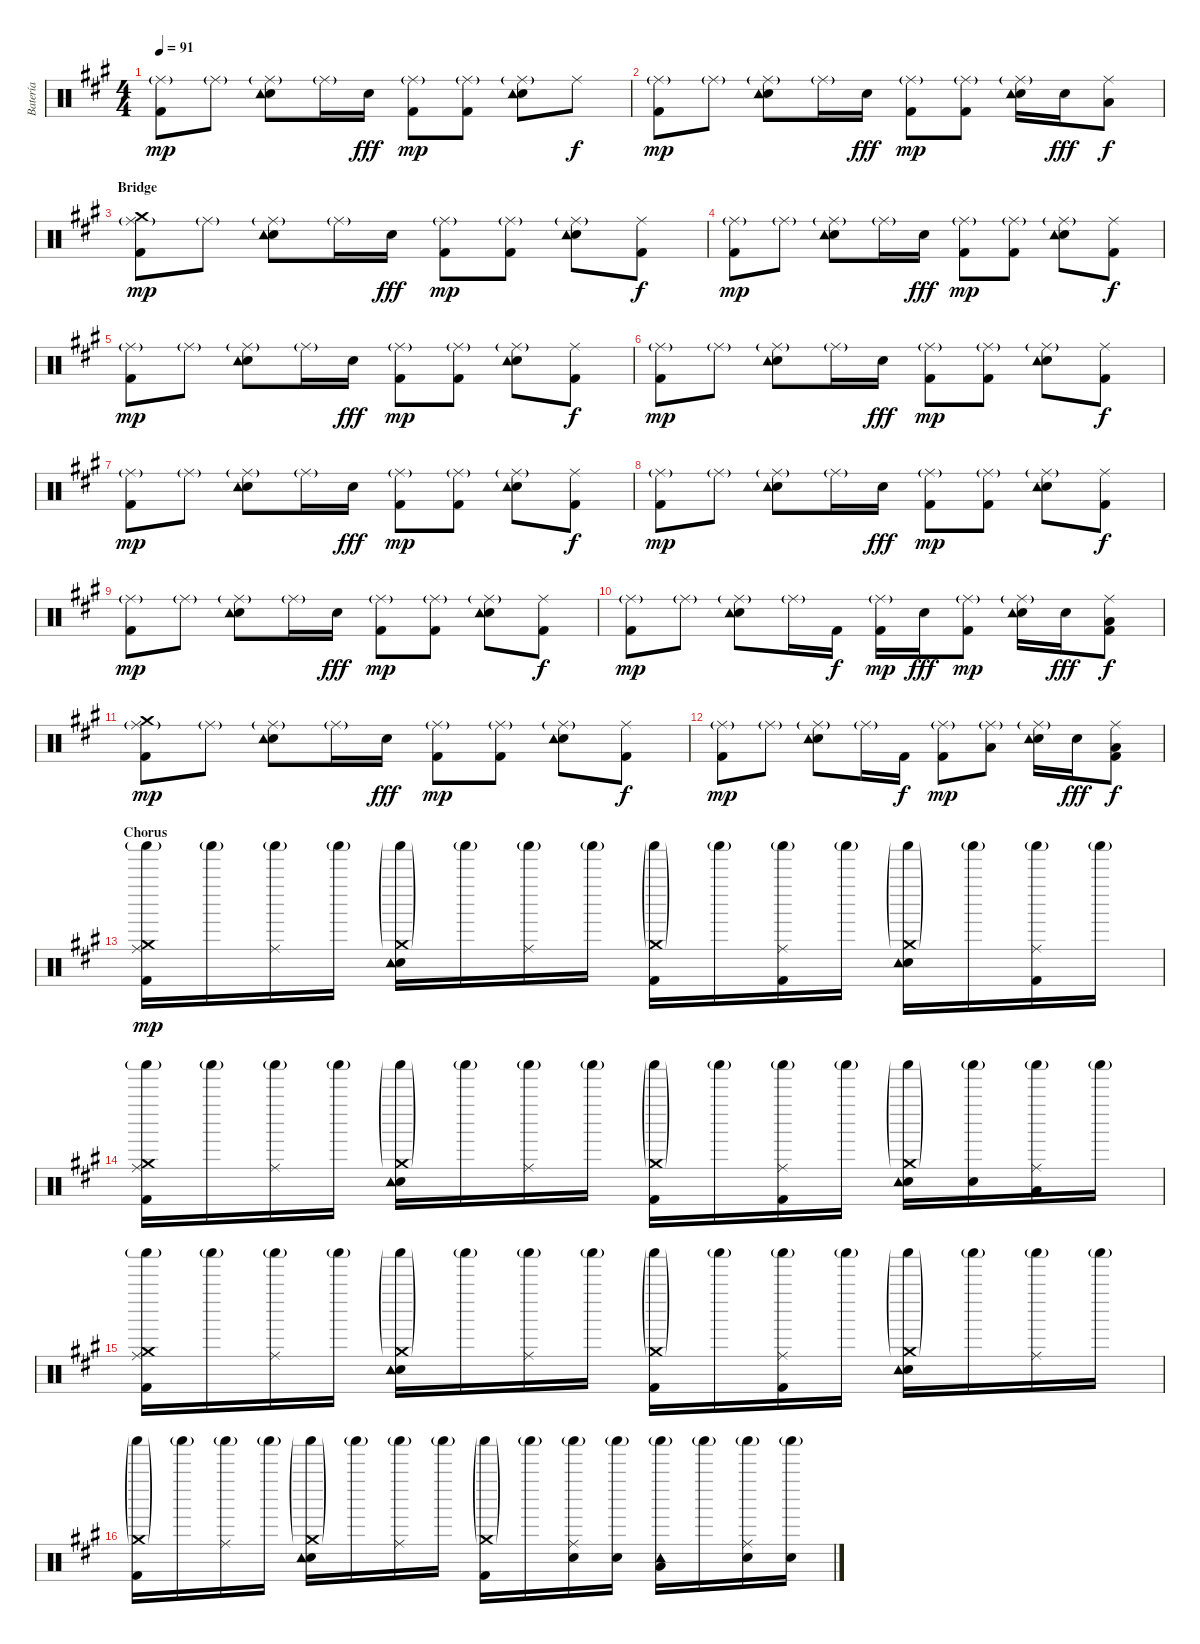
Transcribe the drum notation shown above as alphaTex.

\track ("Batería" "Batería") {instrument percussion}
\staff {score}
\articulation defaults
\ts (4 4)
\tempo 91
\clef neutral
\ks a
("Kick (hit) 2" "Ride (middle)"{g}).8{dy mp} "Ride (middle)"{g}.8 ("Electric Snare (hit)" "Ride (middle)"{g} "Tambourine (hit)").8 "Ride (middle)"{g}.16 "Electric Snare (hit)".16{dy fff} ("Kick (hit) 2" "Ride (middle)"{g}).8{dy mp} ("Kick (hit) 2" "Ride (middle)"{g}).8 ("Electric Snare (hit)" "Ride (middle)"{g} "Tambourine (hit)").8 "Ride (middle)".8{dy f} |
("Kick (hit) 2" "Ride (middle)"{g}).8{dy mp} "Ride (middle)"{g}.8 ("Electric Snare (hit)" "Ride (middle)"{g} "Tambourine (hit)").8 "Ride (middle)"{g}.16 "Electric Snare (hit)".16{dy fff} ("Kick (hit) 2" "Ride (middle)"{g}).8{dy mp} ("Kick (hit) 2" "Ride (middle)"{g}).8 ("Electric Snare (hit)" "Ride (middle)"{g} "Tambourine (hit)").16 "Electric Snare (hit)".16{dy fff} ("Ride (middle)" "Low Tom (hit)").8{dy f} |
\section ("" "Bridge")
("Kick (hit) 2" "Ride (middle)"{g} "Crash medium (hit)").8{dy mp} "Ride (middle)"{g}.8 ("Electric Snare (hit)" "Ride (middle)"{g} "Tambourine (hit)").8 "Ride (middle)"{g}.16 "Electric Snare (hit)".16{dy fff} ("Kick (hit) 2" "Ride (middle)"{g}).8{dy mp} ("Kick (hit) 2" "Ride (middle)"{g}).8 ("Electric Snare (hit)" "Ride (middle)"{g} "Tambourine (hit)").8 ("Kick (hit) 2" "Ride (middle)").8{dy f} |
("Kick (hit) 2" "Ride (middle)"{g}).8{dy mp} "Ride (middle)"{g}.8 ("Electric Snare (hit)" "Ride (middle)"{g} "Tambourine (hit)").8 "Ride (middle)"{g}.16 "Electric Snare (hit)".16{dy fff} ("Kick (hit) 2" "Ride (middle)"{g}).8{dy mp} ("Kick (hit) 2" "Ride (middle)"{g}).8 ("Electric Snare (hit)" "Ride (middle)"{g} "Tambourine (hit)").8 ("Kick (hit) 2" "Ride (middle)").8{dy f} |
("Kick (hit) 2" "Ride (middle)"{g}).8{dy mp} "Ride (middle)"{g}.8 ("Electric Snare (hit)" "Ride (middle)"{g} "Tambourine (hit)").8 "Ride (middle)"{g}.16 "Electric Snare (hit)".16{dy fff} ("Kick (hit) 2" "Ride (middle)"{g}).8{dy mp} ("Kick (hit) 2" "Ride (middle)"{g}).8 ("Electric Snare (hit)" "Ride (middle)"{g} "Tambourine (hit)").8 ("Kick (hit) 2" "Ride (middle)").8{dy f} |
("Kick (hit) 2" "Ride (middle)"{g}).8{dy mp} "Ride (middle)"{g}.8 ("Electric Snare (hit)" "Ride (middle)"{g} "Tambourine (hit)").8 "Ride (middle)"{g}.16 "Electric Snare (hit)".16{dy fff} ("Kick (hit) 2" "Ride (middle)"{g}).8{dy mp} ("Kick (hit) 2" "Ride (middle)"{g}).8 ("Electric Snare (hit)" "Ride (middle)"{g} "Tambourine (hit)").8 ("Kick (hit) 2" "Ride (middle)").8{dy f} |
("Kick (hit) 2" "Ride (middle)"{g}).8{dy mp} "Ride (middle)"{g}.8 ("Electric Snare (hit)" "Ride (middle)"{g} "Tambourine (hit)").8 "Ride (middle)"{g}.16 "Electric Snare (hit)".16{dy fff} ("Kick (hit) 2" "Ride (middle)"{g}).8{dy mp} ("Kick (hit) 2" "Ride (middle)"{g}).8 ("Electric Snare (hit)" "Ride (middle)"{g} "Tambourine (hit)").8 ("Kick (hit) 2" "Ride (middle)").8{dy f} |
("Kick (hit) 2" "Ride (middle)"{g}).8{dy mp} "Ride (middle)"{g}.8 ("Electric Snare (hit)" "Ride (middle)"{g} "Tambourine (hit)").8 "Ride (middle)"{g}.16 "Electric Snare (hit)".16{dy fff} ("Kick (hit) 2" "Ride (middle)"{g}).8{dy mp} ("Kick (hit) 2" "Ride (middle)"{g}).8 ("Electric Snare (hit)" "Ride (middle)"{g} "Tambourine (hit)").8 ("Kick (hit) 2" "Ride (middle)").8{dy f} |
("Kick (hit) 2" "Ride (middle)"{g}).8{dy mp} "Ride (middle)"{g}.8 ("Electric Snare (hit)" "Ride (middle)"{g} "Tambourine (hit)").8 "Ride (middle)"{g}.16 "Electric Snare (hit)".16{dy fff} ("Kick (hit) 2" "Ride (middle)"{g}).8{dy mp} ("Kick (hit) 2" "Ride (middle)"{g}).8 ("Electric Snare (hit)" "Ride (middle)"{g} "Tambourine (hit)").8 ("Kick (hit) 2" "Ride (middle)").8{dy f} |
("Kick (hit) 2" "Ride (middle)"{g}).8{dy mp} "Ride (middle)"{g}.8 ("Electric Snare (hit)" "Ride (middle)"{g} "Tambourine (hit)").8 "Ride (middle)"{g}.16 "Kick (hit) 2".16{dy f} ("Kick (hit) 2" "Ride (middle)"{g}).16{dy mp} "Electric Snare (hit)".16{dy fff} ("Kick (hit) 2" "Ride (middle)"{g}).8{dy mp} ("Electric Snare (hit)" "Ride (middle)"{g} "Tambourine (hit)").16 "Electric Snare (hit)".16{dy fff} ("Kick (hit) 2" "Ride (middle)" "Low Tom (hit)").8{dy f} |
("Kick (hit) 2" "Ride (middle)"{g} "Crash medium (hit)").8{dy mp} "Ride (middle)"{g}.8 ("Electric Snare (hit)" "Ride (middle)"{g} "Tambourine (hit)").8 "Ride (middle)"{g}.16 "Electric Snare (hit)".16{dy fff} ("Kick (hit) 2" "Ride (middle)"{g}).8{dy mp} ("Kick (hit) 2" "Ride (middle)"{g}).8 ("Electric Snare (hit)" "Ride (middle)"{g} "Tambourine (hit)").8 ("Kick (hit) 2" "Ride (middle)").8{dy f} |
("Kick (hit) 2" "Ride (middle)"{g}).8{dy mp} "Ride (middle)"{g}.8 ("Electric Snare (hit)" "Ride (middle)"{g} "Tambourine (hit)").8 "Ride (middle)"{g}.16 "Kick (hit) 2".16{dy f} ("Kick (hit) 2" "Ride (middle)"{g}).8{dy mp} ("Ride (middle)"{g} "Low Tom (hit)").8 ("Electric Snare (hit)" "Ride (middle)"{g} "Tambourine (hit)").16 "Electric Snare (hit)".16{dy fff} ("Kick (hit) 2" "Ride (middle)" "Low Tom (hit)").8{dy f} |
\section ("" "Chorus")
("Kick (hit) 2" "Ride (middle)" "Crash medium (hit)" "Shaker (hit)"{g}).16{dy mp} "Shaker (hit)"{g}.16 ("Ride (middle)" "Shaker (hit)"{g}).16 "Shaker (hit)"{g}.16 ("Electric Snare (hit)" "Crash medium (hit)"{g} "Tambourine (hit)" "Shaker (hit)"{g}).16 "Shaker (hit)"{g}.16 ("Ride (middle)" "Shaker (hit)"{g}).16 "Shaker (hit)"{g}.16 ("Kick (hit) 2" "Crash medium (hit)"{g} "Shaker (hit)"{g}).16 "Shaker (hit)"{g}.16 ("Kick (hit) 2" "Ride (middle)" "Shaker (hit)"{g}).16 "Shaker (hit)"{g}.16 ("Electric Snare (hit)" "Crash medium (hit)"{g} "Tambourine (hit)" "Shaker (hit)"{g}).16 "Shaker (hit)"{g}.16 ("Kick (hit) 2" "Ride (middle)" "Shaker (hit)"{g}).16 "Shaker (hit)"{g}.16 |
("Kick (hit) 2" "Ride (middle)" "Crash medium (hit)" "Shaker (hit)"{g}).16 "Shaker (hit)"{g}.16 ("Ride (middle)" "Shaker (hit)"{g}).16 "Shaker (hit)"{g}.16 ("Electric Snare (hit)" "Crash medium (hit)"{g} "Tambourine (hit)" "Shaker (hit)"{g}).16 "Shaker (hit)"{g}.16 ("Ride (middle)" "Shaker (hit)"{g}).16 "Shaker (hit)"{g}.16 ("Kick (hit) 2" "Crash medium (hit)"{g} "Shaker (hit)"{g}).16 "Shaker (hit)"{g}.16 ("Kick (hit) 2" "Ride (middle)" "Shaker (hit)"{g}).16 "Shaker (hit)"{g}.16 ("Electric Snare (hit)" "Crash medium (hit)"{g} "Tambourine (hit)" "Shaker (hit)"{g}).16 ("Electric Snare (hit)" "Shaker (hit)"{g}).16 ("Ride (middle)" "Low Tom (hit)" "Shaker (hit)"{g}).16 "Shaker (hit)"{g}.16 |
("Kick (hit) 2" "Ride (middle)" "Crash medium (hit)" "Shaker (hit)"{g}).16 "Shaker (hit)"{g}.16 ("Ride (middle)" "Shaker (hit)"{g}).16 "Shaker (hit)"{g}.16 ("Electric Snare (hit)" "Crash medium (hit)"{g} "Tambourine (hit)" "Shaker (hit)"{g}).16 "Shaker (hit)"{g}.16 ("Ride (middle)" "Shaker (hit)"{g}).16 "Shaker (hit)"{g}.16 ("Kick (hit) 2" "Crash medium (hit)"{g} "Shaker (hit)"{g}).16 "Shaker (hit)"{g}.16 ("Kick (hit) 2" "Ride (middle)" "Shaker (hit)"{g}).16 "Shaker (hit)"{g}.16 ("Electric Snare (hit)" "Crash medium (hit)"{g} "Tambourine (hit)" "Shaker (hit)"{g}).16 "Shaker (hit)"{g}.16 ("Ride (middle)" "Shaker (hit)"{g}).16 "Shaker (hit)"{g}.16 |
("Kick (hit) 2" "Crash medium (hit)"{g} "Shaker (hit)"{g}).16 "Shaker (hit)"{g}.16 ("Ride (middle)" "Shaker (hit)"{g}).16 "Shaker (hit)"{g}.16 ("Electric Snare (hit)" "Crash medium (hit)"{g} "Tambourine (hit)" "Shaker (hit)"{g}).16 "Shaker (hit)"{g}.16 ("Ride (middle)" "Shaker (hit)"{g}).16 "Shaker (hit)"{g}.16 ("Kick (hit) 2" "Crash medium (hit)"{g} "Shaker (hit)"{g}).16 "Shaker (hit)"{g}.16 ("Electric Snare (hit)" "Ride (middle)" "Shaker (hit)"{g}).16 ("Electric Snare (hit)" "Shaker (hit)"{g}).16 ("Low Tom (hit)" "Tambourine (hit)" "Shaker (hit)"{g}).16 "Shaker (hit)"{g}.16 ("Electric Snare (hit)" "Ride (middle)" "Shaker (hit)"{g}).16 ("Electric Snare (hit)" "Shaker (hit)"{g}).16
